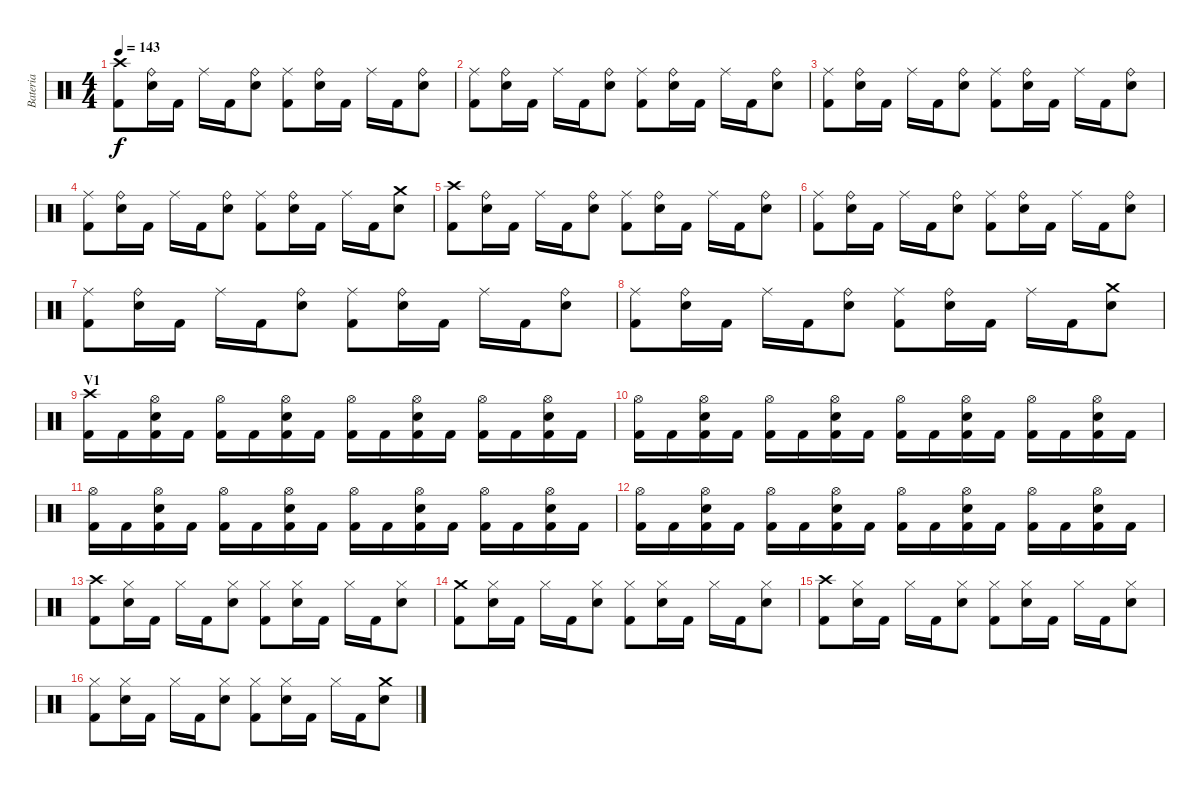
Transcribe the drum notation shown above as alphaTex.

\track ("Bateria" "Bateria") {instrument percussion}
\staff {score}
\articulation defaults
\ts (4 4)
\tempo 143
\clef neutral
\ks c
("Crash high (hit)" "Kick (hit) 2").8{dy f} ("Ride (bell)" "Snare (hit) 2").16 "Kick (hit) 2".16 "Ride (middle)".16 "Kick (hit) 2".16 ("Ride (bell)" "Snare (hit) 2").8 ("Ride (middle)" "Kick (hit) 2").8 ("Ride (bell)" "Snare (hit) 2").16 "Kick (hit) 2".16 "Ride (middle)".16 "Kick (hit) 2".16 ("Ride (bell)" "Snare (hit) 2").8 |
("Ride (middle)" "Kick (hit) 2").8 ("Ride (bell)" "Snare (hit) 2").16 "Kick (hit) 2".16 "Ride (middle)".16 "Kick (hit) 2".16 ("Ride (bell)" "Snare (hit) 2").8 ("Ride (middle)" "Kick (hit) 2").8 ("Ride (bell)" "Snare (hit) 2").16 "Kick (hit) 2".16 "Ride (middle)".16 "Kick (hit) 2".16 ("Ride (bell)" "Snare (hit) 2").8 |
("Ride (middle)" "Kick (hit) 2").8 ("Ride (bell)" "Snare (hit) 2").16 "Kick (hit) 2".16 "Ride (middle)".16 "Kick (hit) 2".16 ("Ride (bell)" "Snare (hit) 2").8 ("Ride (middle)" "Kick (hit) 2").8 ("Ride (bell)" "Snare (hit) 2").16 "Kick (hit) 2".16 "Ride (middle)".16 "Kick (hit) 2".16 ("Ride (bell)" "Snare (hit) 2").8 |
("Ride (middle)" "Kick (hit) 2").8 ("Ride (bell)" "Snare (hit) 2").16 "Kick (hit) 2".16 "Ride (middle)".16 "Kick (hit) 2".16 ("Ride (bell)" "Snare (hit) 2").8 ("Ride (middle)" "Kick (hit) 2").8 ("Ride (bell)" "Snare (hit) 2").16 "Kick (hit) 2".16 "Ride (middle)".16 "Kick (hit) 2".16 ("Crash medium (hit)" "Snare (hit) 2").8 |
("Crash high (hit)" "Kick (hit) 2").8 ("Ride (bell)" "Snare (hit) 2").16 "Kick (hit) 2".16 "Ride (middle)".16 "Kick (hit) 2".16 ("Ride (bell)" "Snare (hit) 2").8 ("Ride (middle)" "Kick (hit) 2").8 ("Ride (bell)" "Snare (hit) 2").16 "Kick (hit) 2".16 "Ride (middle)".16 "Kick (hit) 2".16 ("Ride (bell)" "Snare (hit) 2").8 |
("Ride (middle)" "Kick (hit) 2").8 ("Ride (bell)" "Snare (hit) 2").16 "Kick (hit) 2".16 "Ride (middle)".16 "Kick (hit) 2".16 ("Ride (bell)" "Snare (hit) 2").8 ("Ride (middle)" "Kick (hit) 2").8 ("Ride (bell)" "Snare (hit) 2").16 "Kick (hit) 2".16 "Ride (middle)".16 "Kick (hit) 2".16 ("Ride (bell)" "Snare (hit) 2").8 |
("Ride (middle)" "Kick (hit) 2").8 ("Ride (bell)" "Snare (hit) 2").16 "Kick (hit) 2".16 "Ride (middle)".16 "Kick (hit) 2".16 ("Ride (bell)" "Snare (hit) 2").8 ("Ride (middle)" "Kick (hit) 2").8 ("Ride (bell)" "Snare (hit) 2").16 "Kick (hit) 2".16 "Ride (middle)".16 "Kick (hit) 2".16 ("Ride (bell)" "Snare (hit) 2").8 |
("Ride (middle)" "Kick (hit) 2").8 ("Ride (bell)" "Snare (hit) 2").16 "Kick (hit) 2".16 "Ride (middle)".16 "Kick (hit) 2".16 ("Ride (bell)" "Snare (hit) 2").8 ("Ride (middle)" "Kick (hit) 2").8 ("Ride (bell)" "Snare (hit) 2").16 "Kick (hit) 2".16 "Ride (middle)".16 "Kick (hit) 2".16 ("Crash medium (hit)" "Snare (hit) 2").8 |
\section ("" "V1")
("Crash high (hit)" "Kick (hit) 2").16 "Kick (hit) 2".16 ("Hi-Hat (open)" "Snare (hit) 2" "Kick (hit) 2").16 "Kick (hit) 2".16 ("Hi-Hat (open)" "Kick (hit) 2").16 "Kick (hit) 2".16 ("Hi-Hat (open)" "Snare (hit) 2" "Kick (hit) 2").16 "Kick (hit) 2".16 ("Hi-Hat (open)" "Kick (hit) 2").16 "Kick (hit) 2".16 ("Hi-Hat (open)" "Snare (hit) 2" "Kick (hit) 2").16 "Kick (hit) 2".16 ("Hi-Hat (open)" "Kick (hit) 2").16 "Kick (hit) 2".16 ("Hi-Hat (open)" "Snare (hit) 2" "Kick (hit) 2").16 "Kick (hit) 2".16 |
("Hi-Hat (open)" "Kick (hit) 2").16 "Kick (hit) 2".16 ("Hi-Hat (open)" "Snare (hit) 2" "Kick (hit) 2").16 "Kick (hit) 2".16 ("Hi-Hat (open)" "Kick (hit) 2").16 "Kick (hit) 2".16 ("Hi-Hat (open)" "Snare (hit) 2" "Kick (hit) 2").16 "Kick (hit) 2".16 ("Hi-Hat (open)" "Kick (hit) 2").16 "Kick (hit) 2".16 ("Hi-Hat (open)" "Snare (hit) 2" "Kick (hit) 2").16 "Kick (hit) 2".16 ("Hi-Hat (open)" "Kick (hit) 2").16 "Kick (hit) 2".16 ("Hi-Hat (open)" "Snare (hit) 2" "Kick (hit) 2").16 "Kick (hit) 2".16 |
("Hi-Hat (open)" "Kick (hit) 2").16 "Kick (hit) 2".16 ("Hi-Hat (open)" "Snare (hit) 2" "Kick (hit) 2").16 "Kick (hit) 2".16 ("Hi-Hat (open)" "Kick (hit) 2").16 "Kick (hit) 2".16 ("Hi-Hat (open)" "Snare (hit) 2" "Kick (hit) 2").16 "Kick (hit) 2".16 ("Hi-Hat (open)" "Kick (hit) 2").16 "Kick (hit) 2".16 ("Hi-Hat (open)" "Snare (hit) 2" "Kick (hit) 2").16 "Kick (hit) 2".16 ("Hi-Hat (open)" "Kick (hit) 2").16 "Kick (hit) 2".16 ("Hi-Hat (open)" "Snare (hit) 2" "Kick (hit) 2").16 "Kick (hit) 2".16 |
("Hi-Hat (open)" "Kick (hit) 2").16 "Kick (hit) 2".16 ("Hi-Hat (open)" "Snare (hit) 2" "Kick (hit) 2").16 "Kick (hit) 2".16 ("Hi-Hat (open)" "Kick (hit) 2").16 "Kick (hit) 2".16 ("Hi-Hat (open)" "Snare (hit) 2" "Kick (hit) 2").16 "Kick (hit) 2".16 ("Hi-Hat (open)" "Kick (hit) 2").16 "Kick (hit) 2".16 ("Hi-Hat (open)" "Snare (hit) 2" "Kick (hit) 2").16 "Kick (hit) 2".16 ("Hi-Hat (open)" "Kick (hit) 2").16 "Kick (hit) 2".16 ("Hi-Hat (open)" "Snare (hit) 2" "Kick (hit) 2").16 "Kick (hit) 2".16 |
("Crash high (hit)" "Kick (hit) 2").8 ("Hi-Hat (closed)" "Snare (hit) 2").16 "Kick (hit) 2".16 "Hi-Hat (closed)".16 "Kick (hit) 2".16 ("Hi-Hat (closed)" "Snare (hit) 2").8 ("Hi-Hat (closed)" "Kick (hit) 2").8 ("Hi-Hat (closed)" "Snare (hit) 2").16 "Kick (hit) 2".16 "Hi-Hat (closed)".16 "Kick (hit) 2".16 ("Hi-Hat (closed)" "Snare (hit) 2").8 |
("Crash medium (hit)" "Kick (hit) 2").8 ("Hi-Hat (closed)" "Snare (hit) 2").16 "Kick (hit) 2".16 "Hi-Hat (closed)".16 "Kick (hit) 2".16 ("Hi-Hat (closed)" "Snare (hit) 2").8 ("Hi-Hat (closed)" "Kick (hit) 2").8 ("Hi-Hat (closed)" "Snare (hit) 2").16 "Kick (hit) 2".16 "Hi-Hat (closed)".16 "Kick (hit) 2".16 ("Hi-Hat (closed)" "Snare (hit) 2").8 |
("Crash high (hit)" "Kick (hit) 2").8 ("Hi-Hat (closed)" "Snare (hit) 2").16 "Kick (hit) 2".16 "Hi-Hat (closed)".16 "Kick (hit) 2".16 ("Hi-Hat (closed)" "Snare (hit) 2").8 ("Hi-Hat (closed)" "Kick (hit) 2").8 ("Hi-Hat (closed)" "Snare (hit) 2").16 "Kick (hit) 2".16 "Hi-Hat (closed)".16 "Kick (hit) 2".16 ("Hi-Hat (closed)" "Snare (hit) 2").8 |
("Hi-Hat (closed)" "Kick (hit) 2").8 ("Hi-Hat (closed)" "Snare (hit) 2").16 "Kick (hit) 2".16 "Hi-Hat (closed)".16 "Kick (hit) 2".16 ("Hi-Hat (closed)" "Snare (hit) 2").8 ("Hi-Hat (closed)" "Kick (hit) 2").8 ("Hi-Hat (closed)" "Snare (hit) 2").16 "Kick (hit) 2".16 "Hi-Hat (closed)".16 "Kick (hit) 2".16 ("Crash medium (hit)" "Snare (hit) 2").8
